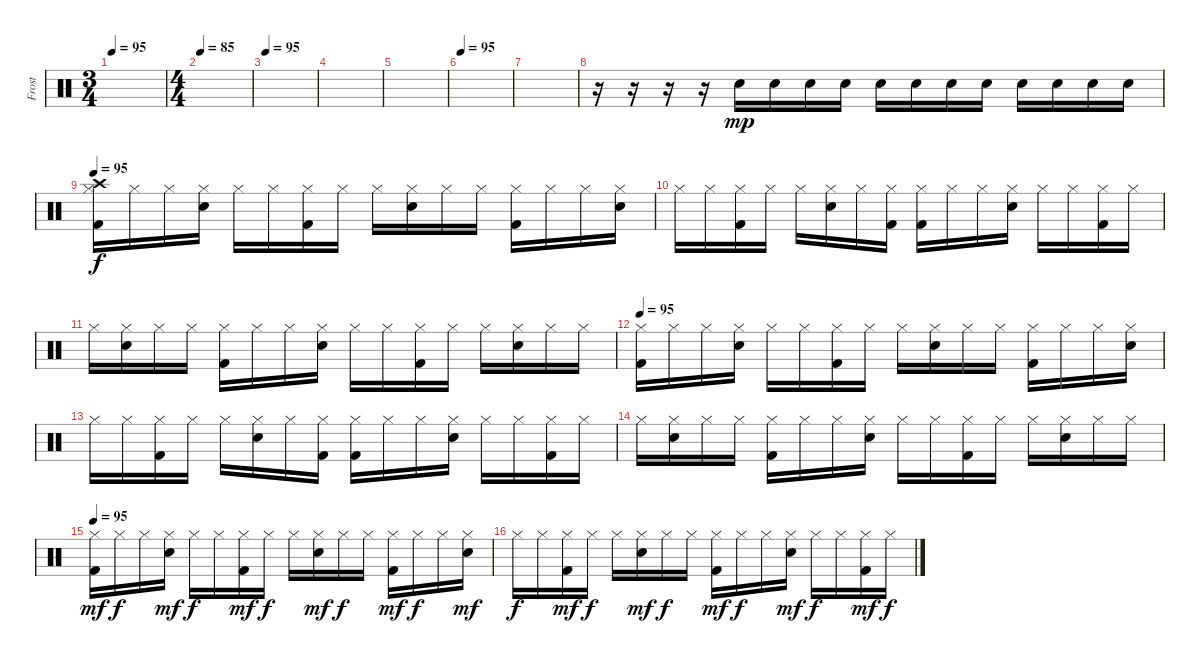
\track ("Frost" "Frost") {instrument percussion}
\staff {score}
\articulation defaults
\ts (3 4)
\tempo 95
\clef neutral
\ks c
|
\ts (4 4)
\tempo 85
|
\tempo 95
|
|
|
\tempo 95
|
|
r.16 r.16 r.16 r.16 "Electric Snare (hit)".16{dy mp} "Electric Snare (hit)".16 "Electric Snare (hit)".16 "Electric Snare (hit)".16 "Electric Snare (hit)".16 "Electric Snare (hit)".16 "Electric Snare (hit)".16 "Electric Snare (hit)".16 "Electric Snare (hit)".16 "Electric Snare (hit)".16 "Electric Snare (hit)".16 "Electric Snare (hit)".16 |
\tempo 95
("Crash high (hit)" "Hi-Hat (closed)" "Kick (hit) 2").16{dy f} "Hi-Hat (closed)".16 "Hi-Hat (closed)".16 ("Hi-Hat (closed)" "Electric Snare (hit)").16 "Hi-Hat (closed)".16 "Hi-Hat (closed)".16 ("Hi-Hat (closed)" "Kick (hit) 2").16 "Hi-Hat (closed)".16 "Hi-Hat (closed)".16 ("Hi-Hat (closed)" "Electric Snare (hit)").16 "Hi-Hat (closed)".16 "Hi-Hat (closed)".16 ("Hi-Hat (closed)" "Kick (hit) 2").16 "Hi-Hat (closed)".16 "Hi-Hat (closed)".16 ("Hi-Hat (closed)" "Electric Snare (hit)").16 |
"Hi-Hat (closed)".16 "Hi-Hat (closed)".16 ("Hi-Hat (closed)" "Kick (hit) 2").16 "Hi-Hat (closed)".16 "Hi-Hat (closed)".16 ("Hi-Hat (closed)" "Electric Snare (hit)").16 "Hi-Hat (closed)".16 ("Hi-Hat (closed)" "Kick (hit) 2").16 ("Hi-Hat (closed)" "Kick (hit) 2").16 "Hi-Hat (closed)".16 "Hi-Hat (closed)".16 ("Hi-Hat (closed)" "Electric Snare (hit)").16 "Hi-Hat (closed)".16 "Hi-Hat (closed)".16 ("Hi-Hat (closed)" "Kick (hit) 2").16 "Hi-Hat (closed)".16 |
"Hi-Hat (closed)".16 ("Hi-Hat (closed)" "Electric Snare (hit)").16 "Hi-Hat (closed)".16 "Hi-Hat (closed)".16 ("Hi-Hat (closed)" "Kick (hit) 2").16 "Hi-Hat (closed)".16 "Hi-Hat (closed)".16 ("Hi-Hat (closed)" "Electric Snare (hit)").16 "Hi-Hat (closed)".16 "Hi-Hat (closed)".16 ("Hi-Hat (closed)" "Kick (hit) 2").16 "Hi-Hat (closed)".16 "Hi-Hat (closed)".16 ("Hi-Hat (closed)" "Electric Snare (hit)").16 "Hi-Hat (closed)".16 "Hi-Hat (closed)".16 |
\tempo 95
("Hi-Hat (closed)" "Kick (hit) 2").16 "Hi-Hat (closed)".16 "Hi-Hat (closed)".16 ("Hi-Hat (closed)" "Electric Snare (hit)").16 "Hi-Hat (closed)".16 "Hi-Hat (closed)".16 ("Hi-Hat (closed)" "Kick (hit) 2").16 "Hi-Hat (closed)".16 "Hi-Hat (closed)".16 ("Hi-Hat (closed)" "Electric Snare (hit)").16 "Hi-Hat (closed)".16 "Hi-Hat (closed)".16 ("Hi-Hat (closed)" "Kick (hit) 2").16 "Hi-Hat (closed)".16 "Hi-Hat (closed)".16 ("Hi-Hat (closed)" "Electric Snare (hit)").16 |
"Hi-Hat (closed)".16 "Hi-Hat (closed)".16 ("Hi-Hat (closed)" "Kick (hit) 2").16 "Hi-Hat (closed)".16 "Hi-Hat (closed)".16 ("Hi-Hat (closed)" "Electric Snare (hit)").16 "Hi-Hat (closed)".16 ("Hi-Hat (closed)" "Kick (hit) 2").16 ("Hi-Hat (closed)" "Kick (hit) 2").16 "Hi-Hat (closed)".16 "Hi-Hat (closed)".16 ("Hi-Hat (closed)" "Electric Snare (hit)").16 "Hi-Hat (closed)".16 "Hi-Hat (closed)".16 ("Hi-Hat (closed)" "Kick (hit) 2").16 "Hi-Hat (closed)".16 |
"Hi-Hat (closed)".16 ("Hi-Hat (closed)" "Electric Snare (hit)").16 "Hi-Hat (closed)".16 "Hi-Hat (closed)".16 ("Hi-Hat (closed)" "Kick (hit) 2").16 "Hi-Hat (closed)".16 "Hi-Hat (closed)".16 ("Hi-Hat (closed)" "Electric Snare (hit)").16 "Hi-Hat (closed)".16 "Hi-Hat (closed)".16 ("Hi-Hat (closed)" "Kick (hit) 2").16 "Hi-Hat (closed)".16 "Hi-Hat (closed)".16 ("Hi-Hat (closed)" "Electric Snare (hit)").16 "Hi-Hat (closed)".16 "Hi-Hat (closed)".16 |
\tempo 95
("Hi-Hat (closed)" "Kick (hit) 2").16{dy mf} "Hi-Hat (closed)".16{dy f} "Hi-Hat (closed)".16 ("Hi-Hat (closed)" "Electric Snare (hit)").16{dy mf} "Hi-Hat (closed)".16{dy f} "Hi-Hat (closed)".16 ("Hi-Hat (closed)" "Kick (hit) 2").16{dy mf} "Hi-Hat (closed)".16{dy f} "Hi-Hat (closed)".16 ("Hi-Hat (closed)" "Electric Snare (hit)").16{dy mf} "Hi-Hat (closed)".16{dy f} "Hi-Hat (closed)".16 ("Hi-Hat (closed)" "Kick (hit) 2").16{dy mf} "Hi-Hat (closed)".16{dy f} "Hi-Hat (closed)".16 ("Hi-Hat (closed)" "Electric Snare (hit)").16{dy mf} |
"Hi-Hat (closed)".16{dy f} "Hi-Hat (closed)".16 ("Hi-Hat (closed)" "Kick (hit) 2").16{dy mf} "Hi-Hat (closed)".16{dy f} "Hi-Hat (closed)".16 ("Hi-Hat (closed)" "Electric Snare (hit)").16{dy mf} "Hi-Hat (closed)".16{dy f} "Hi-Hat (closed)".16 ("Hi-Hat (closed)" "Kick (hit) 2").16{dy mf} "Hi-Hat (closed)".16{dy f} "Hi-Hat (closed)".16 ("Hi-Hat (closed)" "Electric Snare (hit)").16{dy mf} "Hi-Hat (closed)".16{dy f} "Hi-Hat (closed)".16 ("Hi-Hat (closed)" "Kick (hit) 2").16{dy mf} "Hi-Hat (closed)".16{dy f}
